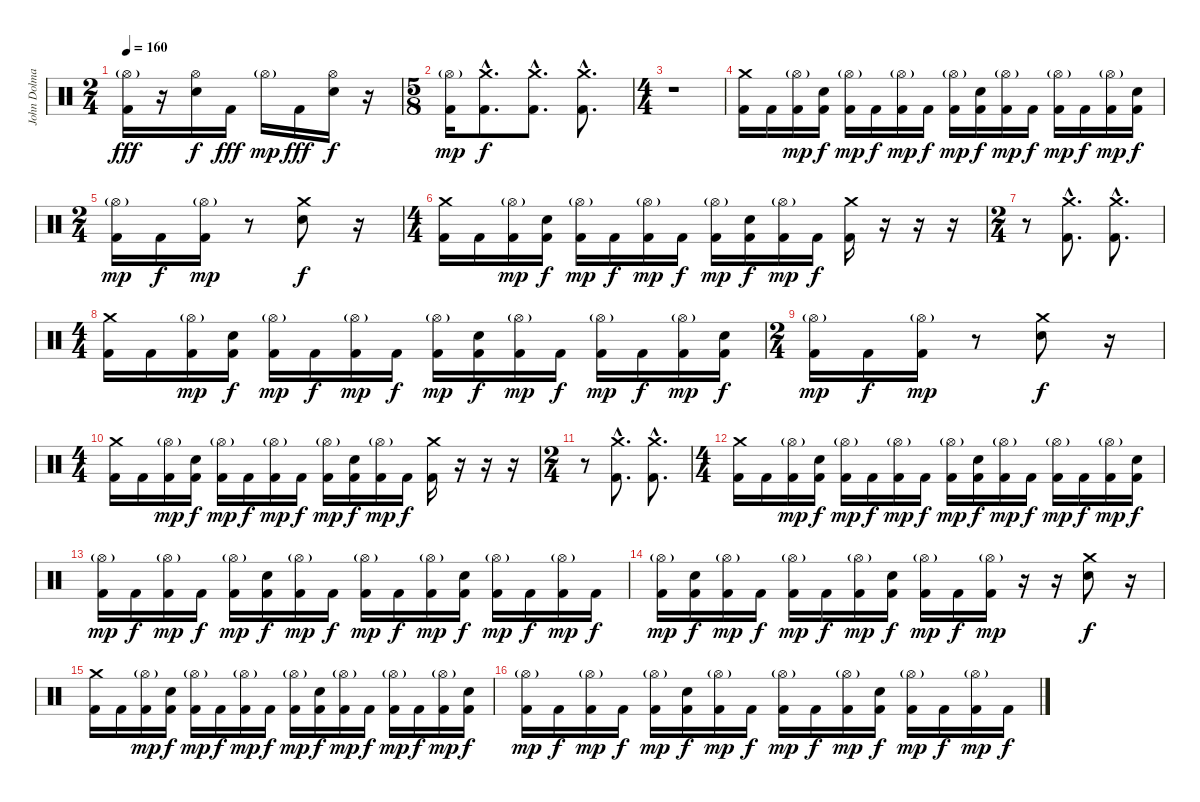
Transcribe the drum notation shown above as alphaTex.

\track ("John Dolmayan(Drums)" "John Dolma") {instrument percussion}
\staff {score}
\articulation defaults
\ts (2 4)
\tempo 160
\clef neutral
\ks c
("Hi-Hat (open)"{g} "Kick (hit) 2").16{dy fff} r.16 ("Hi-Hat (open)" "Electric Snare (hit)").16{dy f} "Kick (hit) 2".16{dy fff} "Hi-Hat (open)"{g}.16{dy mp} "Kick (hit) 2".16{dy fff} ("Hi-Hat (open)" "Electric Snare (hit)").16{dy f} r.16 |
\ts (5 8)
("Hi-Hat (open)"{g} "Kick (hit) 2").16{dy mp} ("Crash medium (hit)"{hac} "Kick (hit) 2"{hac}).8{d dy f} ("Crash medium (hit)"{hac} "Kick (hit) 2"{hac}).8{d} ("Crash medium (hit)"{hac} "Kick (hit) 2"{hac}).8{d} |
\ts (4 4)
r.1 |
("Crash medium (hit)" "Kick (hit) 2").16 "Kick (hit) 2".16 ("Hi-Hat (open)"{g} "Kick (hit) 2").16{dy mp} ("Electric Snare (hit)" "Kick (hit) 2").16{dy f} ("Hi-Hat (open)"{g} "Kick (hit) 2").16{dy mp} "Kick (hit) 2".16{dy f} ("Hi-Hat (open)"{g} "Kick (hit) 2").16{dy mp} "Kick (hit) 2".16{dy f} ("Hi-Hat (open)"{g} "Kick (hit) 2").16{dy mp} ("Electric Snare (hit)" "Kick (hit) 2").16{dy f} ("Hi-Hat (open)"{g} "Kick (hit) 2").16{dy mp} "Kick (hit) 2".16{dy f} ("Hi-Hat (open)"{g} "Kick (hit) 2").16{dy mp} "Kick (hit) 2".16{dy f} ("Hi-Hat (open)"{g} "Kick (hit) 2").16{dy mp} ("Electric Snare (hit)" "Kick (hit) 2").16{dy f} |
\ts (2 4)
("Hi-Hat (open)"{g} "Kick (hit) 2").16{dy mp} "Kick (hit) 2".16{dy f} ("Hi-Hat (open)"{g} "Kick (hit) 2").16{dy mp} r.8 ("Crash medium (hit)" "Electric Snare (hit)").8{dy f} r.16 |
\ts (4 4)
("Crash medium (hit)" "Kick (hit) 2").16 "Kick (hit) 2".16 ("Hi-Hat (open)"{g} "Kick (hit) 2").16{dy mp} ("Electric Snare (hit)" "Kick (hit) 2").16{dy f} ("Hi-Hat (open)"{g} "Kick (hit) 2").16{dy mp} "Kick (hit) 2".16{dy f} ("Hi-Hat (open)"{g} "Kick (hit) 2").16{dy mp} "Kick (hit) 2".16{dy f} ("Hi-Hat (open)"{g} "Kick (hit) 2").16{dy mp} ("Electric Snare (hit)" "Kick (hit) 2").16{dy f} ("Hi-Hat (open)"{g} "Kick (hit) 2").16{dy mp} "Kick (hit) 2".16{dy f} ("Crash medium (hit)" "Kick (hit) 2").16 r.16 r.16 r.16 |
\ts (2 4)
r.8 ("Crash medium (hit)"{hac} "Kick (hit) 2"{hac}).8{d} ("Crash medium (hit)"{hac} "Kick (hit) 2"{hac}).8{d} |
\ts (4 4)
("Crash medium (hit)" "Kick (hit) 2").16 "Kick (hit) 2".16 ("Hi-Hat (open)"{g} "Kick (hit) 2").16{dy mp} ("Electric Snare (hit)" "Kick (hit) 2").16{dy f} ("Hi-Hat (open)"{g} "Kick (hit) 2").16{dy mp} "Kick (hit) 2".16{dy f} ("Hi-Hat (open)"{g} "Kick (hit) 2").16{dy mp} "Kick (hit) 2".16{dy f} ("Hi-Hat (open)"{g} "Kick (hit) 2").16{dy mp} ("Electric Snare (hit)" "Kick (hit) 2").16{dy f} ("Hi-Hat (open)"{g} "Kick (hit) 2").16{dy mp} "Kick (hit) 2".16{dy f} ("Hi-Hat (open)"{g} "Kick (hit) 2").16{dy mp} "Kick (hit) 2".16{dy f} ("Hi-Hat (open)"{g} "Kick (hit) 2").16{dy mp} ("Electric Snare (hit)" "Kick (hit) 2").16{dy f} |
\ts (2 4)
("Hi-Hat (open)"{g} "Kick (hit) 2").16{dy mp} "Kick (hit) 2".16{dy f} ("Hi-Hat (open)"{g} "Kick (hit) 2").16{dy mp} r.8 ("Crash medium (hit)" "Electric Snare (hit)").8{dy f} r.16 |
\ts (4 4)
("Crash medium (hit)" "Kick (hit) 2").16 "Kick (hit) 2".16 ("Hi-Hat (open)"{g} "Kick (hit) 2").16{dy mp} ("Electric Snare (hit)" "Kick (hit) 2").16{dy f} ("Hi-Hat (open)"{g} "Kick (hit) 2").16{dy mp} "Kick (hit) 2".16{dy f} ("Hi-Hat (open)"{g} "Kick (hit) 2").16{dy mp} "Kick (hit) 2".16{dy f} ("Hi-Hat (open)"{g} "Kick (hit) 2").16{dy mp} ("Electric Snare (hit)" "Kick (hit) 2").16{dy f} ("Hi-Hat (open)"{g} "Kick (hit) 2").16{dy mp} "Kick (hit) 2".16{dy f} ("Crash medium (hit)" "Kick (hit) 2").16 r.16 r.16 r.16 |
\ts (2 4)
r.8 ("Crash medium (hit)"{hac} "Kick (hit) 2"{hac}).8{d} ("Crash medium (hit)"{hac} "Kick (hit) 2"{hac}).8{d} |
\ts (4 4)
("Crash medium (hit)" "Kick (hit) 2").16 "Kick (hit) 2".16 ("Hi-Hat (open)"{g} "Kick (hit) 2").16{dy mp} ("Electric Snare (hit)" "Kick (hit) 2").16{dy f} ("Hi-Hat (open)"{g} "Kick (hit) 2").16{dy mp} "Kick (hit) 2".16{dy f} ("Hi-Hat (open)"{g} "Kick (hit) 2").16{dy mp} "Kick (hit) 2".16{dy f} ("Hi-Hat (open)"{g} "Kick (hit) 2").16{dy mp} ("Electric Snare (hit)" "Kick (hit) 2").16{dy f} ("Hi-Hat (open)"{g} "Kick (hit) 2").16{dy mp} "Kick (hit) 2".16{dy f} ("Hi-Hat (open)"{g} "Kick (hit) 2").16{dy mp} "Kick (hit) 2".16{dy f} ("Hi-Hat (open)"{g} "Kick (hit) 2").16{dy mp} ("Electric Snare (hit)" "Kick (hit) 2").16{dy f} |
("Hi-Hat (open)"{g} "Kick (hit) 2").16{dy mp} "Kick (hit) 2".16{dy f} ("Hi-Hat (open)"{g} "Kick (hit) 2").16{dy mp} "Kick (hit) 2".16{dy f} ("Hi-Hat (open)"{g} "Kick (hit) 2").16{dy mp} ("Electric Snare (hit)" "Kick (hit) 2").16{dy f} ("Hi-Hat (open)"{g} "Kick (hit) 2").16{dy mp} "Kick (hit) 2".16{dy f} ("Hi-Hat (open)"{g} "Kick (hit) 2").16{dy mp} "Kick (hit) 2".16{dy f} ("Hi-Hat (open)"{g} "Kick (hit) 2").16{dy mp} ("Electric Snare (hit)" "Kick (hit) 2").16{dy f} ("Hi-Hat (open)"{g} "Kick (hit) 2").16{dy mp} "Kick (hit) 2".16{dy f} ("Hi-Hat (open)"{g} "Kick (hit) 2").16{dy mp} "Kick (hit) 2".16{dy f} |
("Hi-Hat (open)"{g} "Kick (hit) 2").16{dy mp} ("Electric Snare (hit)" "Kick (hit) 2").16{dy f} ("Hi-Hat (open)"{g} "Kick (hit) 2").16{dy mp} "Kick (hit) 2".16{dy f} ("Hi-Hat (open)"{g} "Kick (hit) 2").16{dy mp} "Kick (hit) 2".16{dy f} ("Hi-Hat (open)"{g} "Kick (hit) 2").16{dy mp} ("Electric Snare (hit)" "Kick (hit) 2").16{dy f} ("Hi-Hat (open)"{g} "Kick (hit) 2").16{dy mp} "Kick (hit) 2".16{dy f} ("Hi-Hat (open)"{g} "Kick (hit) 2").16{dy mp} r.16 r.16 ("Crash medium (hit)" "Electric Snare (hit)").8{dy f} r.16 |
("Crash medium (hit)" "Kick (hit) 2").16 "Kick (hit) 2".16 ("Hi-Hat (open)"{g} "Kick (hit) 2").16{dy mp} ("Electric Snare (hit)" "Kick (hit) 2").16{dy f} ("Hi-Hat (open)"{g} "Kick (hit) 2").16{dy mp} "Kick (hit) 2".16{dy f} ("Hi-Hat (open)"{g} "Kick (hit) 2").16{dy mp} "Kick (hit) 2".16{dy f} ("Hi-Hat (open)"{g} "Kick (hit) 2").16{dy mp} ("Electric Snare (hit)" "Kick (hit) 2").16{dy f} ("Hi-Hat (open)"{g} "Kick (hit) 2").16{dy mp} "Kick (hit) 2".16{dy f} ("Hi-Hat (open)"{g} "Kick (hit) 2").16{dy mp} "Kick (hit) 2".16{dy f} ("Hi-Hat (open)"{g} "Kick (hit) 2").16{dy mp} ("Electric Snare (hit)" "Kick (hit) 2").16{dy f} |
("Hi-Hat (open)"{g} "Kick (hit) 2").16{dy mp} "Kick (hit) 2".16{dy f} ("Hi-Hat (open)"{g} "Kick (hit) 2").16{dy mp} "Kick (hit) 2".16{dy f} ("Hi-Hat (open)"{g} "Kick (hit) 2").16{dy mp} ("Electric Snare (hit)" "Kick (hit) 2").16{dy f} ("Hi-Hat (open)"{g} "Kick (hit) 2").16{dy mp} "Kick (hit) 2".16{dy f} ("Hi-Hat (open)"{g} "Kick (hit) 2").16{dy mp} "Kick (hit) 2".16{dy f} ("Hi-Hat (open)"{g} "Kick (hit) 2").16{dy mp} ("Electric Snare (hit)" "Kick (hit) 2").16{dy f} ("Hi-Hat (open)"{g} "Kick (hit) 2").16{dy mp} "Kick (hit) 2".16{dy f} ("Hi-Hat (open)"{g} "Kick (hit) 2").16{dy mp} "Kick (hit) 2".16{dy f}
